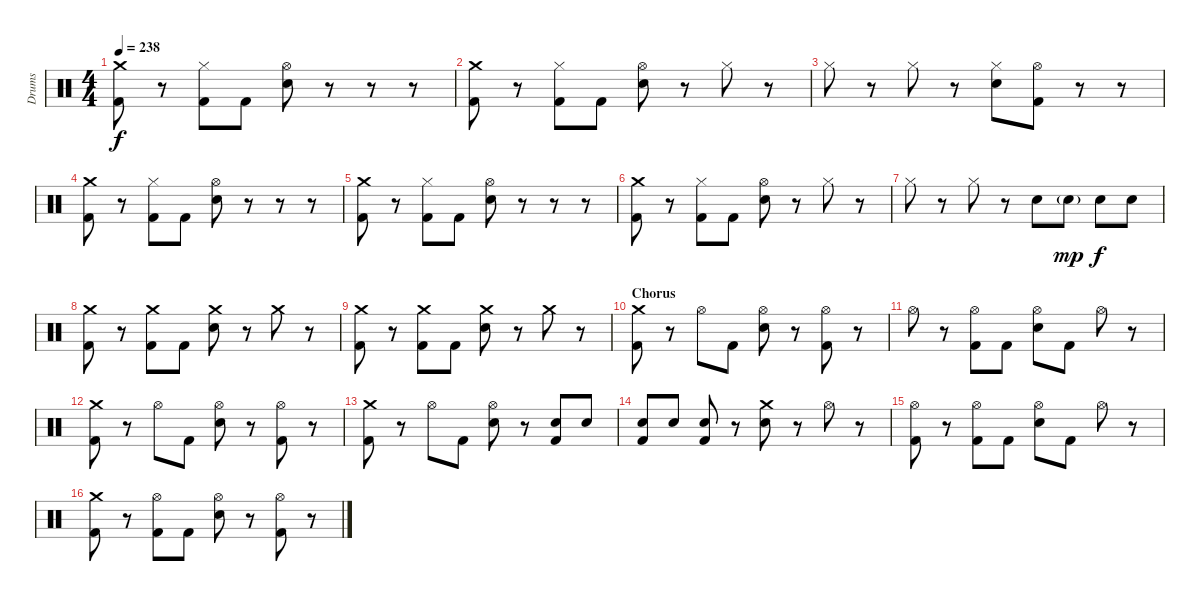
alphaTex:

\track ("Drums" "Drums") {instrument percussion}
\staff {score}
\articulation defaults
\ts (4 4)
\tempo 238
\clef neutral
\ks c
("Crash medium (hit)" "Kick (hit) 2").8{dy f} r.8 ("Hi-Hat (closed)" "Kick (hit) 2").8 "Kick (hit) 2".8 ("Hi-Hat (open)" "Electric Snare (hit)").8 r.8 r.8 r.8 |
("Crash medium (hit)" "Kick (hit) 2").8 r.8 ("Hi-Hat (closed)" "Kick (hit) 2").8 "Kick (hit) 2".8 ("Hi-Hat (open)" "Electric Snare (hit)").8 r.8 "Hi-Hat (closed)".8 r.8 |
"Hi-Hat (closed)".8 r.8 "Hi-Hat (closed)".8 r.8 ("Hi-Hat (closed)" "Electric Snare (hit)").8 ("Hi-Hat (open)" "Kick (hit) 2").8 r.8 r.8 |
("Crash medium (hit)" "Kick (hit) 2").8 r.8 ("Hi-Hat (closed)" "Kick (hit) 2").8 "Kick (hit) 2".8 ("Hi-Hat (open)" "Electric Snare (hit)").8 r.8 r.8 r.8 |
("Crash medium (hit)" "Kick (hit) 2").8 r.8 ("Hi-Hat (closed)" "Kick (hit) 2").8 "Kick (hit) 2".8 ("Hi-Hat (open)" "Electric Snare (hit)").8 r.8 r.8 r.8 |
("Crash medium (hit)" "Kick (hit) 2").8 r.8 ("Hi-Hat (closed)" "Kick (hit) 2").8 "Kick (hit) 2".8 ("Hi-Hat (open)" "Electric Snare (hit)").8 r.8 "Hi-Hat (closed)".8 r.8 |
"Hi-Hat (closed)".8 r.8 "Hi-Hat (closed)".8 r.8 "Electric Snare (hit)".8 "Electric Snare (hit)"{g}.8{dy mp} "Electric Snare (hit)".8{dy f} "Electric Snare (hit)".8 |
("Crash medium (hit)" "Kick (hit) 2").8 r.8 ("Crash medium (hit)" "Kick (hit) 2").8 "Kick (hit) 2".8 ("Crash medium (hit)" "Electric Snare (hit)").8 r.8 "Crash medium (hit)".8 r.8 |
("Crash medium (hit)" "Kick (hit) 2").8 r.8 ("Crash medium (hit)" "Kick (hit) 2").8 "Kick (hit) 2".8 ("Crash medium (hit)" "Electric Snare (hit)").8 r.8 "Crash medium (hit)".8 r.8 |
\section ("" "Chorus")
("Crash medium (hit)" "Kick (hit) 2").8 r.8 "Hi-Hat (open)".8 "Kick (hit) 2".8 ("Hi-Hat (open)" "Electric Snare (hit)").8 r.8 ("Hi-Hat (open)" "Kick (hit) 2").8 r.8 |
"Hi-Hat (open)".8 r.8 ("Hi-Hat (open)" "Kick (hit) 2").8 "Kick (hit) 2".8 ("Hi-Hat (open)" "Electric Snare (hit)").8 "Kick (hit) 2".8 "Hi-Hat (open)".8 r.8 |
("Crash medium (hit)" "Kick (hit) 2").8 r.8 "Hi-Hat (open)".8 "Kick (hit) 2".8 ("Hi-Hat (open)" "Electric Snare (hit)").8 r.8 ("Hi-Hat (open)" "Kick (hit) 2").8 r.8 |
("Crash medium (hit)" "Kick (hit) 2").8 r.8 "Hi-Hat (open)".8 "Kick (hit) 2".8 ("Hi-Hat (open)" "Electric Snare (hit)").8 r.8 ("Electric Snare (hit)" "Kick (hit) 2").8 "Electric Snare (hit)".8 |
("Electric Snare (hit)" "Kick (hit) 2").8 "Electric Snare (hit)".8 ("Electric Snare (hit)" "Kick (hit) 2").8 r.8 ("Crash medium (hit)" "Electric Snare (hit)").8 r.8 "Hi-Hat (open)".8 r.8 |
("Hi-Hat (open)" "Kick (hit) 2").8 r.8 ("Hi-Hat (open)" "Kick (hit) 2").8 "Kick (hit) 2".8 ("Hi-Hat (open)" "Electric Snare (hit)").8 "Kick (hit) 2".8 "Hi-Hat (open)".8 r.8 |
("Crash medium (hit)" "Kick (hit) 2").8 r.8 ("Hi-Hat (open)" "Kick (hit) 2").8 "Kick (hit) 2".8 ("Hi-Hat (open)" "Electric Snare (hit)").8 r.8 ("Hi-Hat (open)" "Kick (hit) 2").8 r.8
